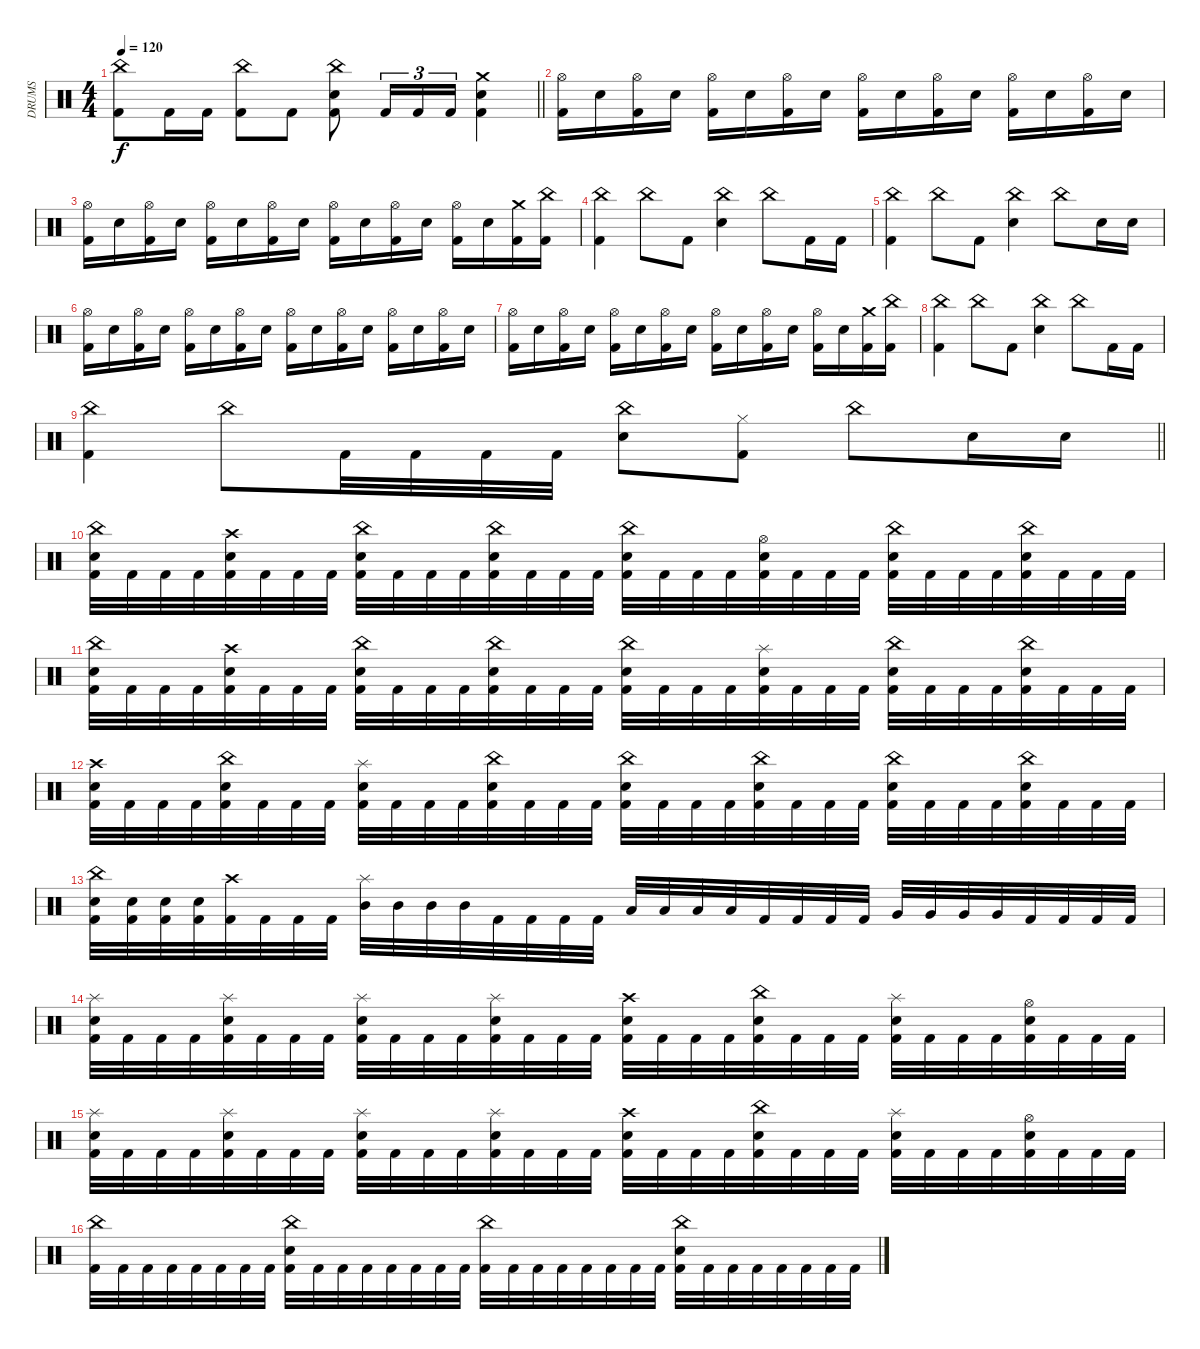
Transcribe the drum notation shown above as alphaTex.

\track ("DRUMS" "DRUMS") {instrument percussion}
\staff {score}
\articulation defaults
\ts (4 4)
\tempo 120
\clef neutral
\barLineRight lightlight
\ks c
("China (hit)" "Kick (hit) 2").8{dy f} "Kick (hit) 2".16 "Kick (hit) 2".16 ("China (hit)" "Kick (hit) 2").8 "Kick (hit) 2".8 ("China (hit)" "Electric Snare (hit)" "Kick (hit) 2").8 "Kick (hit) 2".16{tu (3 2)} "Kick (hit) 2".16{tu (3 2)} "Kick (hit) 2".16{tu (3 2)} ("Crash medium (hit)" "Electric Snare (hit)" "Kick (hit) 2").4 |
("Hi-Hat (open)" "Kick (hit) 2").16 "Electric Snare (hit)".16 ("Hi-Hat (open)" "Kick (hit) 2").16 "Electric Snare (hit)".16 ("Hi-Hat (open)" "Kick (hit) 2").16 "Electric Snare (hit)".16 ("Hi-Hat (open)" "Kick (hit) 2").16 "Electric Snare (hit)".16 ("Hi-Hat (open)" "Kick (hit) 2").16 "Electric Snare (hit)".16 ("Hi-Hat (open)" "Kick (hit) 2").16 "Electric Snare (hit)".16 ("Hi-Hat (open)" "Kick (hit) 2").16 "Electric Snare (hit)".16 ("Hi-Hat (open)" "Kick (hit) 2").16 "Electric Snare (hit)".16 |
("Hi-Hat (open)" "Kick (hit) 2").16 "Electric Snare (hit)".16 ("Hi-Hat (open)" "Kick (hit) 2").16 "Electric Snare (hit)".16 ("Hi-Hat (open)" "Kick (hit) 2").16 "Electric Snare (hit)".16 ("Hi-Hat (open)" "Kick (hit) 2").16 "Electric Snare (hit)".16 ("Hi-Hat (open)" "Kick (hit) 2").16 "Electric Snare (hit)".16 ("Hi-Hat (open)" "Kick (hit) 2").16 "Electric Snare (hit)".16 ("Hi-Hat (open)" "Kick (hit) 2").16 "Electric Snare (hit)".16 ("Crash medium (hit)" "Kick (hit) 2").16 ("China (hit)" "Kick (hit) 2").16 |
("China (hit)" "Kick (hit) 2").4 "China (hit)".8 "Kick (hit) 2".8 ("China (hit)" "Electric Snare (hit)").4 "China (hit)".8 "Kick (hit) 2".16 "Kick (hit) 2".16 |
("China (hit)" "Kick (hit) 2").4 "China (hit)".8 "Kick (hit) 2".8 ("China (hit)" "Electric Snare (hit)").4 "China (hit)".8 "Electric Snare (hit)".16 "Electric Snare (hit)".16 |
("Hi-Hat (open)" "Kick (hit) 2").16 "Electric Snare (hit)".16 ("Hi-Hat (open)" "Kick (hit) 2").16 "Electric Snare (hit)".16 ("Hi-Hat (open)" "Kick (hit) 2").16 "Electric Snare (hit)".16 ("Hi-Hat (open)" "Kick (hit) 2").16 "Electric Snare (hit)".16 ("Hi-Hat (open)" "Kick (hit) 2").16 "Electric Snare (hit)".16 ("Hi-Hat (open)" "Kick (hit) 2").16 "Electric Snare (hit)".16 ("Hi-Hat (open)" "Kick (hit) 2").16 "Electric Snare (hit)".16 ("Hi-Hat (open)" "Kick (hit) 2").16 "Electric Snare (hit)".16 |
("Hi-Hat (open)" "Kick (hit) 2").16 "Electric Snare (hit)".16 ("Hi-Hat (open)" "Kick (hit) 2").16 "Electric Snare (hit)".16 ("Hi-Hat (open)" "Kick (hit) 2").16 "Electric Snare (hit)".16 ("Hi-Hat (open)" "Kick (hit) 2").16 "Electric Snare (hit)".16 ("Hi-Hat (open)" "Kick (hit) 2").16 "Electric Snare (hit)".16 ("Hi-Hat (open)" "Kick (hit) 2").16 "Electric Snare (hit)".16 ("Hi-Hat (open)" "Kick (hit) 2").16 "Electric Snare (hit)".16 ("Crash medium (hit)" "Kick (hit) 2").16 ("China (hit)" "Kick (hit) 2").16 |
("China (hit)" "Kick (hit) 2").4 "China (hit)".8 "Kick (hit) 2".8 ("China (hit)" "Electric Snare (hit)").4 "China (hit)".8 "Kick (hit) 2".16 "Kick (hit) 2".16 |
\barLineRight lightlight
("China (hit)" "Kick (hit) 2").4 "China (hit)".8 "Kick (hit) 2".32 "Kick (hit) 2".32 "Kick (hit) 2".32 "Kick (hit) 2".32 ("China (hit)" "Electric Snare (hit)").8 ("Hi-Hat (closed)" "Kick (hit) 2").8 "China (hit)".8 "Electric Snare (hit)".16 "Electric Snare (hit)".16 |
("China (hit)" "Electric Snare (hit)" "Kick (hit) 2").32 "Kick (hit) 2".32 "Kick (hit) 2".32 "Kick (hit) 2".32 ("Crash high (hit)" "Electric Snare (hit)" "Kick (hit) 2").32 "Kick (hit) 2".32 "Kick (hit) 2".32 "Kick (hit) 2".32 ("China (hit)" "Electric Snare (hit)" "Kick (hit) 2").32 "Kick (hit) 2".32 "Kick (hit) 2".32 "Kick (hit) 2".32 ("China (hit)" "Electric Snare (hit)" "Kick (hit) 2").32 "Kick (hit) 2".32 "Kick (hit) 2".32 "Kick (hit) 2".32 ("China (hit)" "Electric Snare (hit)" "Kick (hit) 2").32 "Kick (hit) 2".32 "Kick (hit) 2".32 "Kick (hit) 2".32 ("Hi-Hat (open)" "Electric Snare (hit)" "Kick (hit) 2").32 "Kick (hit) 2".32 "Kick (hit) 2".32 "Kick (hit) 2".32 ("China (hit)" "Electric Snare (hit)" "Kick (hit) 2").32 "Kick (hit) 2".32 "Kick (hit) 2".32 "Kick (hit) 2".32 ("China (hit)" "Electric Snare (hit)" "Kick (hit) 2").32 "Kick (hit) 2".32 "Kick (hit) 2".32 "Kick (hit) 2".32 |
("China (hit)" "Electric Snare (hit)" "Kick (hit) 2").32 "Kick (hit) 2".32 "Kick (hit) 2".32 "Kick (hit) 2".32 ("Crash high (hit)" "Electric Snare (hit)" "Kick (hit) 2").32 "Kick (hit) 2".32 "Kick (hit) 2".32 "Kick (hit) 2".32 ("China (hit)" "Electric Snare (hit)" "Kick (hit) 2").32 "Kick (hit) 2".32 "Kick (hit) 2".32 "Kick (hit) 2".32 ("China (hit)" "Electric Snare (hit)" "Kick (hit) 2").32 "Kick (hit) 2".32 "Kick (hit) 2".32 "Kick (hit) 2".32 ("China (hit)" "Electric Snare (hit)" "Kick (hit) 2").32 "Kick (hit) 2".32 "Kick (hit) 2".32 "Kick (hit) 2".32 ("Splash (hit)" "Electric Snare (hit)" "Kick (hit) 2").32 "Kick (hit) 2".32 "Kick (hit) 2".32 "Kick (hit) 2".32 ("China (hit)" "Electric Snare (hit)" "Kick (hit) 2").32 "Kick (hit) 2".32 "Kick (hit) 2".32 "Kick (hit) 2".32 ("China (hit)" "Electric Snare (hit)" "Kick (hit) 2").32 "Kick (hit) 2".32 "Kick (hit) 2".32 "Kick (hit) 2".32 |
("Crash high (hit)" "Electric Snare (hit)" "Kick (hit) 2").32 "Kick (hit) 2".32 "Kick (hit) 2".32 "Kick (hit) 2".32 ("China (hit)" "Electric Snare (hit)" "Kick (hit) 2").32 "Kick (hit) 2".32 "Kick (hit) 2".32 "Kick (hit) 2".32 ("Splash (hit)" "Electric Snare (hit)" "Kick (hit) 2").32 "Kick (hit) 2".32 "Kick (hit) 2".32 "Kick (hit) 2".32 ("China (hit)" "Electric Snare (hit)" "Kick (hit) 2").32 "Kick (hit) 2".32 "Kick (hit) 2".32 "Kick (hit) 2".32 ("China (hit)" "Electric Snare (hit)" "Kick (hit) 2").32 "Kick (hit) 2".32 "Kick (hit) 2".32 "Kick (hit) 2".32 ("China (hit)" "Electric Snare (hit)" "Kick (hit) 2").32 "Kick (hit) 2".32 "Kick (hit) 2".32 "Kick (hit) 2".32 ("China (hit)" "Electric Snare (hit)" "Kick (hit) 2").32 "Kick (hit) 2".32 "Kick (hit) 2".32 "Kick (hit) 2".32 ("China (hit)" "Electric Snare (hit)" "Kick (hit) 2").32 "Kick (hit) 2".32 "Kick (hit) 2".32 "Kick (hit) 2".32 |
("China (hit)" "Electric Snare (hit)" "Kick (hit) 2").32 ("Electric Snare (hit)" "Kick (hit) 2").32 ("Electric Snare (hit)" "Kick (hit) 2").32 ("Electric Snare (hit)" "Kick (hit) 2").32 ("Crash high (hit)" "Kick (hit) 2").32 "Kick (hit) 2".32 "Kick (hit) 2".32 "Kick (hit) 2".32 ("Splash (hit)" "Mid Tom (hit)").32 "Mid Tom (hit)".32 "Mid Tom (hit)".32 "Mid Tom (hit)".32 "Kick (hit) 2".32 "Kick (hit) 2".32 "Kick (hit) 2".32 "Kick (hit) 2".32 "Low Tom (hit)".32 "Low Tom (hit)".32 "Low Tom (hit)".32 "Low Tom (hit)".32 "Kick (hit) 2".32 "Kick (hit) 2".32 "Kick (hit) 2".32 "Kick (hit) 2".32 "Very Low Tom (hit)".32 "Very Low Tom (hit)".32 "Very Low Tom (hit)".32 "Very Low Tom (hit)".32 "Kick (hit) 2".32 "Kick (hit) 2".32 "Kick (hit) 2".32 "Kick (hit) 2".32 |
("Splash (hit)" "Electric Snare (hit)" "Kick (hit) 2").32 "Kick (hit) 2".32 "Kick (hit) 2".32 "Kick (hit) 2".32 ("Splash (hit)" "Electric Snare (hit)" "Kick (hit) 2").32 "Kick (hit) 2".32 "Kick (hit) 2".32 "Kick (hit) 2".32 ("Splash (hit)" "Electric Snare (hit)" "Kick (hit) 2").32 "Kick (hit) 2".32 "Kick (hit) 2".32 "Kick (hit) 2".32 ("Splash (hit)" "Electric Snare (hit)" "Kick (hit) 2").32 "Kick (hit) 2".32 "Kick (hit) 2".32 "Kick (hit) 2".32 ("Crash high (hit)" "Electric Snare (hit)" "Kick (hit) 2").32 "Kick (hit) 2".32 "Kick (hit) 2".32 "Kick (hit) 2".32 ("China (hit)" "Electric Snare (hit)" "Kick (hit) 2").32 "Kick (hit) 2".32 "Kick (hit) 2".32 "Kick (hit) 2".32 ("Splash (hit)" "Electric Snare (hit)" "Kick (hit) 2").32 "Kick (hit) 2".32 "Kick (hit) 2".32 "Kick (hit) 2".32 ("Hi-Hat (open)" "Electric Snare (hit)" "Kick (hit) 2").32 "Kick (hit) 2".32 "Kick (hit) 2".32 "Kick (hit) 2".32 |
("Splash (hit)" "Electric Snare (hit)" "Kick (hit) 2").32 "Kick (hit) 2".32 "Kick (hit) 2".32 "Kick (hit) 2".32 ("Splash (hit)" "Electric Snare (hit)" "Kick (hit) 2").32 "Kick (hit) 2".32 "Kick (hit) 2".32 "Kick (hit) 2".32 ("Splash (hit)" "Electric Snare (hit)" "Kick (hit) 2").32 "Kick (hit) 2".32 "Kick (hit) 2".32 "Kick (hit) 2".32 ("Splash (hit)" "Electric Snare (hit)" "Kick (hit) 2").32 "Kick (hit) 2".32 "Kick (hit) 2".32 "Kick (hit) 2".32 ("Crash high (hit)" "Electric Snare (hit)" "Kick (hit) 2").32 "Kick (hit) 2".32 "Kick (hit) 2".32 "Kick (hit) 2".32 ("China (hit)" "Electric Snare (hit)" "Kick (hit) 2").32 "Kick (hit) 2".32 "Kick (hit) 2".32 "Kick (hit) 2".32 ("Splash (hit)" "Electric Snare (hit)" "Kick (hit) 2").32 "Kick (hit) 2".32 "Kick (hit) 2".32 "Kick (hit) 2".32 ("Hi-Hat (open)" "Electric Snare (hit)" "Kick (hit) 2").32 "Kick (hit) 2".32 "Kick (hit) 2".32 "Kick (hit) 2".32 |
("China (hit)" "Kick (hit) 2").32 "Kick (hit) 2".32 "Kick (hit) 2".32 "Kick (hit) 2".32 "Kick (hit) 2".32 "Kick (hit) 2".32 "Kick (hit) 2".32 "Kick (hit) 2".32 ("China (hit)" "Electric Snare (hit)" "Kick (hit) 2").32 "Kick (hit) 2".32 "Kick (hit) 2".32 "Kick (hit) 2".32 "Kick (hit) 2".32 "Kick (hit) 2".32 "Kick (hit) 2".32 "Kick (hit) 2".32 ("China (hit)" "Kick (hit) 2").32 "Kick (hit) 2".32 "Kick (hit) 2".32 "Kick (hit) 2".32 "Kick (hit) 2".32 "Kick (hit) 2".32 "Kick (hit) 2".32 "Kick (hit) 2".32 ("China (hit)" "Electric Snare (hit)" "Kick (hit) 2").32 "Kick (hit) 2".32 "Kick (hit) 2".32 "Kick (hit) 2".32 "Kick (hit) 2".32 "Kick (hit) 2".32 "Kick (hit) 2".32 "Kick (hit) 2".32
